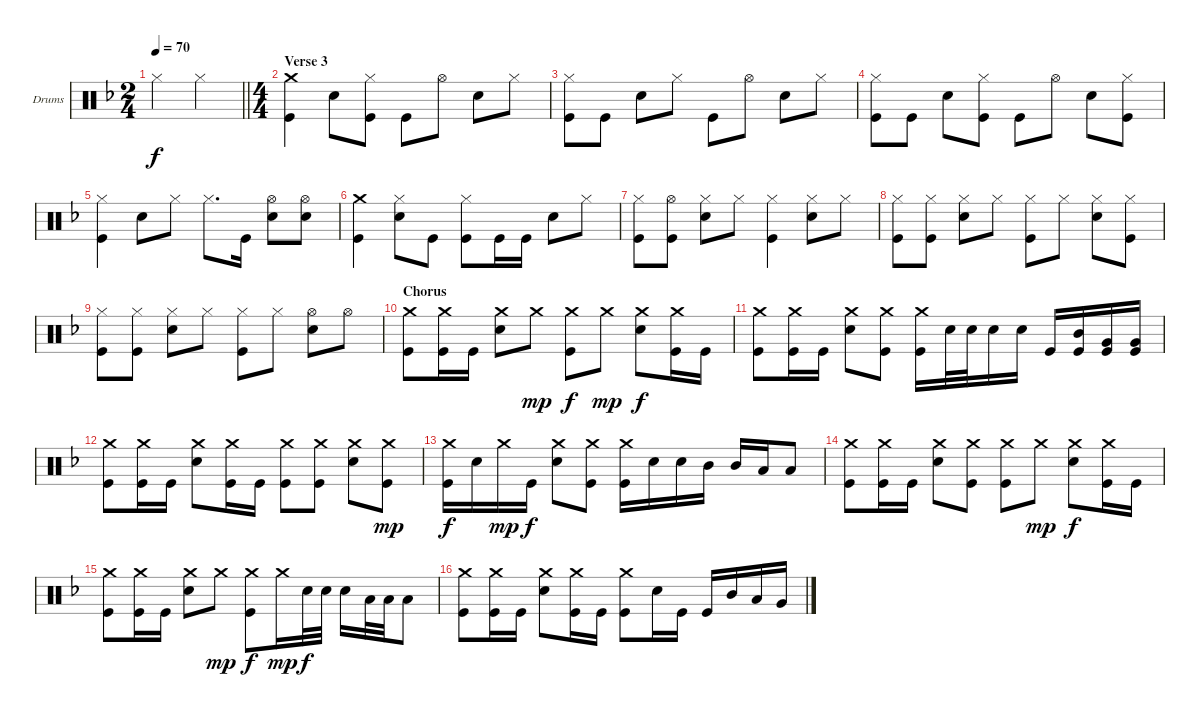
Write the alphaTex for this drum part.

\bracketExtendMode groupsimilarinstruments
\firstSystemTrackNameOrientation horizontal
\otherSystemsTrackNameOrientation horizontal
\track ("Drumkit" "Drums") {instrument percussion}
\staff {score}
\articulation defaults
\ts (2 4)
\beaming (8 2 2)
\tempo 70
\clef neutral
\barLineRight lightlight
\ks dminor "Hi-Hat (closed)".4{dy f} "Hi-Hat (closed)".4
|
\ts (4 4)
\beaming (8 2 2 2 2)
\section ("" "Verse 3")
("Kick (hit)" "Crash medium (hit)").4 "Snare (hit) 2".8 ("Kick (hit)" "Hi-Hat (closed)").8 "Kick (hit)".8 "Hi-Hat (open)".8 "Snare (hit) 2".8 "Hi-Hat (closed)".8 |
("Kick (hit)" "Hi-Hat (closed)").8 "Kick (hit)".8 "Snare (hit) 2".8 "Hi-Hat (closed)".8 "Kick (hit)".8 "Hi-Hat (open)".8 "Snare (hit) 2".8 "Hi-Hat (closed)".8 |
("Kick (hit)" "Hi-Hat (closed)").8 "Kick (hit)".8 "Snare (hit) 2".8 ("Hi-Hat (closed)" "Kick (hit)").8 "Kick (hit)".8 "Hi-Hat (open)".8 "Snare (hit) 2".8 ("Hi-Hat (closed)" "Kick (hit)").8 |
("Kick (hit)" "Hi-Hat (closed)").4 "Snare (hit) 2".8 "Hi-Hat (closed)".8 "Hi-Hat (closed)".8{d} "Kick (hit)".16 ("Snare (hit) 2" "Hi-Hat (open)").8 ("Snare (hit) 2" "Hi-Hat (open)").8 |
("Kick (hit)" "Crash medium (hit)").4 ("Snare (hit) 2" "Hi-Hat (closed)").8 "Kick (hit)".8 ("Kick (hit)" "Hi-Hat (closed)").8 "Kick (hit)".16 "Kick (hit)".16 "Snare (hit) 2".8 "Hi-Hat (closed)".8 |
("Kick (hit)" "Hi-Hat (closed)").8 ("Kick (hit)" "Hi-Hat (open)").8 ("Snare (hit) 2" "Hi-Hat (closed)").8 "Hi-Hat (closed)".8 ("Hi-Hat (closed)" "Kick (hit)").4 ("Snare (hit) 2" "Hi-Hat (closed)").8 "Hi-Hat (closed)".8 |
("Kick (hit)" "Hi-Hat (closed)").8 ("Hi-Hat (closed)" "Kick (hit)").8 ("Snare (hit) 2" "Hi-Hat (closed)").8 "Hi-Hat (closed)".8 ("Kick (hit)" "Hi-Hat (closed)").8 "Hi-Hat (closed)".8 ("Snare (hit) 2" "Hi-Hat (closed)").8 ("Hi-Hat (closed)" "Kick (hit)").8 |
("Kick (hit)" "Hi-Hat (closed)").8 ("Hi-Hat (closed)" "Kick (hit)").8 ("Snare (hit) 2" "Hi-Hat (closed)").8 "Hi-Hat (closed)".8 ("Kick (hit)" "Hi-Hat (closed)").8 "Hi-Hat (closed)".8 ("Snare (hit) 2" "Hi-Hat (open)").8 "Hi-Hat (open)".8 |
\section ("" "Chorus")
("Kick (hit)" "Crash medium (hit)").8 ("Kick (hit)" "Crash medium (hit)").16 "Kick (hit)".16 ("Snare (hit) 2" "Crash medium (hit)").8 "Crash medium (hit)".8{dy mp} ("Kick (hit)" "Crash medium (hit)").8{dy f} "Crash medium (hit)".8{dy mp} ("Snare (hit) 2" "Crash medium (hit)").8{dy f} ("Kick (hit)" "Crash medium (hit)").16 "Kick (hit)".16 |
("Crash medium (hit)" "Kick (hit)").8 ("Kick (hit)" "Crash medium (hit)").16 "Kick (hit)".16 ("Snare (hit) 2" "Crash medium (hit)").8 ("Kick (hit)" "Crash medium (hit)").8 ("Kick (hit)" "Crash medium (hit)").16 "Snare (hit) 2".32 "Snare (hit) 2".32 "Snare (hit) 2".16 "Snare (hit) 2".16 "Kick (hit)".16 ("Mid Tom (hit)" "Kick (hit)").16 ("Kick (hit)" "Very Low Tom (hit)").16 ("Kick (hit)" "Very Low Tom (hit)").16 |
("Crash medium (hit)" "Kick (hit)").8 ("Kick (hit)" "Crash medium (hit)").16 "Kick (hit)".16 ("Snare (hit) 2" "Crash medium (hit)").8 ("Kick (hit)" "Crash medium (hit)").16 "Kick (hit)".16 ("Kick (hit)" "Crash medium (hit)").8 ("Kick (hit)" "Crash medium (hit)").8 ("Snare (hit) 2" "Crash medium (hit)").8 ("Crash medium (hit)" "Kick (hit)").8{dy mp} |
("Kick (hit)" "Crash medium (hit)").16{dy f} "Snare (hit) 2".16 "Crash medium (hit)".16{dy mp} "Kick (hit)".16{dy f} ("Snare (hit) 2" "Crash medium (hit)").8 ("Kick (hit)" "Crash medium (hit)").8 ("Kick (hit)" "Crash medium (hit)").16 "Snare (hit) 2".16 "Snare (hit) 2".16 "Mid Tom (hit)".16 "Mid Tom (hit)".16 "Low Tom (hit)".16 "Low Tom (hit)".8 |
("Kick (hit)" "Crash medium (hit)").8 ("Kick (hit)" "Crash medium (hit)").16 "Kick (hit)".16 ("Snare (hit) 2" "Crash medium (hit)").8 ("Kick (hit)" "Crash medium (hit)").8 ("Kick (hit)" "Crash medium (hit)").8 "Crash medium (hit)".8{dy mp} ("Snare (hit) 2" "Crash medium (hit)").8{dy f} ("Kick (hit)" "Crash medium (hit)").16 "Kick (hit)".16 |
("Crash medium (hit)" "Kick (hit)").8 ("Kick (hit)" "Crash medium (hit)").16 "Kick (hit)".16 ("Snare (hit) 2" "Crash medium (hit)").8 "Crash medium (hit)".8{dy mp} ("Kick (hit)" "Crash medium (hit)").8{dy f} "Crash medium (hit)".16{dy mp} "Snare (hit) 2".32{dy f} "Snare (hit) 2".32 "Snare (hit) 2".16 "Low Tom (hit)".32 "Low Tom (hit)".32 "Low Tom (hit)".8 |
("Crash medium (hit)" "Kick (hit)").8 ("Kick (hit)" "Crash medium (hit)").16 "Kick (hit)".16 ("Snare (hit) 2" "Crash medium (hit)").8 ("Kick (hit)" "Crash medium (hit)").16 "Kick (hit)".16 ("Kick (hit)" "Crash medium (hit)").8 "Snare (hit) 2".16 "Kick (hit)".16 "Kick (hit)".16 "Mid Tom (hit)".16 "Low Tom (hit)".16 "Very Low Tom (hit)".16
